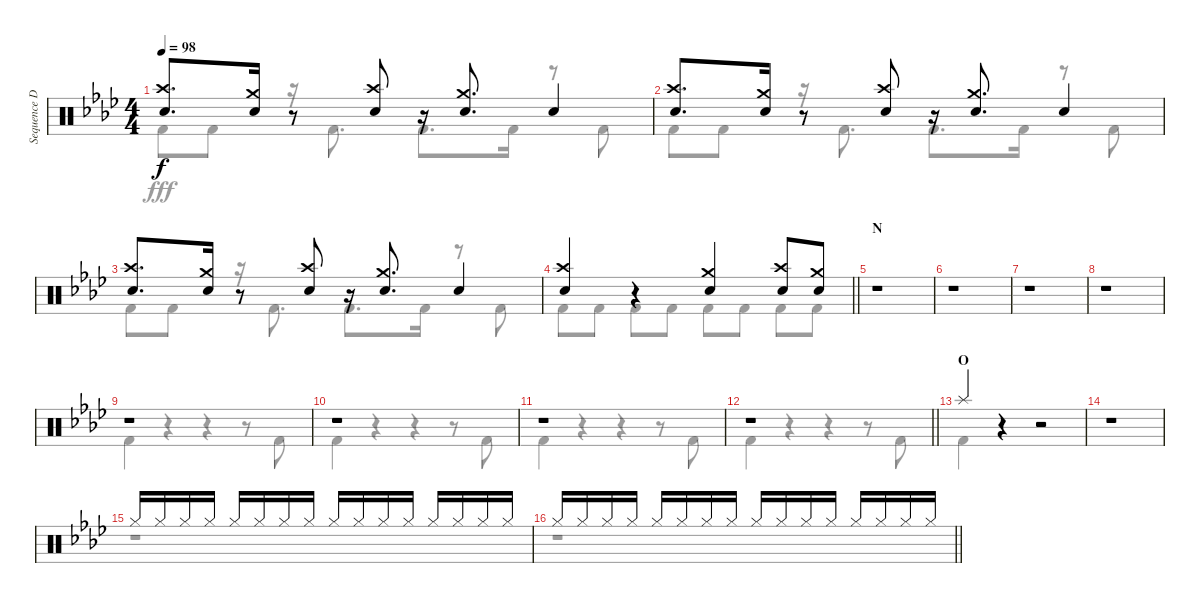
\track ("Sequence Drums I" "Sequence D") {instrument percussion}
\staff {score}
\articulation defaults
\voice
\ts (4 4)
\tempo 98
\clef neutral
\ks ab
("Crash high (hit)" "Electric Snare (hit)").8{d dy f} ("Crash medium (hit)" "Electric Snare (hit)").16 r.8 ("Crash high (hit)" "Electric Snare (hit)").8 r.16 ("Crash medium (hit)" "Electric Snare (hit)").8{d} "Electric Snare (hit)".4 |
("Crash high (hit)" "Electric Snare (hit)").8{d} ("Crash medium (hit)" "Electric Snare (hit)").16 r.8 ("Crash high (hit)" "Electric Snare (hit)").8 r.16 ("Crash medium (hit)" "Electric Snare (hit)").8{d} "Electric Snare (hit)".4 |
("Crash high (hit)" "Electric Snare (hit)").8{d} ("Crash medium (hit)" "Electric Snare (hit)").16 r.8 ("Crash high (hit)" "Electric Snare (hit)").8 r.16 ("Crash medium (hit)" "Electric Snare (hit)").8{d} "Electric Snare (hit)".4 |
\barLineRight lightlight
("Crash high (hit)" "Electric Snare (hit)").4 r.4 ("Crash medium (hit)" "Electric Snare (hit)").4 ("Crash high (hit)" "Electric Snare (hit)").8 ("Crash medium (hit)" "Electric Snare (hit)").8 |
\section ("" "N")
r.1 |
r.1 |
r.1 |
r.1 |
r.1 |
r.1 |
r.1 |
\barLineRight lightlight
r.1 |
\section ("" "O")
"Splash (hit)".4 r.4 r.2 |
r.1 |
"Hi-Hat (closed)".16 "Hi-Hat (closed)".16 "Hi-Hat (closed)".16 "Hi-Hat (closed)".16 "Hi-Hat (closed)".16 "Hi-Hat (closed)".16 "Hi-Hat (closed)".16 "Hi-Hat (closed)".16 "Hi-Hat (closed)".16 "Hi-Hat (closed)".16 "Hi-Hat (closed)".16 "Hi-Hat (closed)".16 "Hi-Hat (closed)".16 "Hi-Hat (closed)".16 "Hi-Hat (closed)".16 "Hi-Hat (closed)".16 |
\barLineRight lightlight "Hi-Hat (closed)".16 "Hi-Hat (closed)".16 "Hi-Hat (closed)".16 "Hi-Hat (closed)".16 "Hi-Hat (closed)".16 "Hi-Hat (closed)".16 "Hi-Hat (closed)".16 "Hi-Hat (closed)".16 "Hi-Hat (closed)".16 "Hi-Hat (closed)".16 "Hi-Hat (closed)".16 "Hi-Hat (closed)".16 "Hi-Hat (closed)".16 "Hi-Hat (closed)".16 "Hi-Hat (closed)".16 "Hi-Hat (closed)".16
\voice
\clef neutral
\ottava regular
\simile none
\ks ab "Kick (hit) 2".8{dy fff} "Kick (hit) 2".8
r.16 "Kick (hit) 2".8{d} "Kick (hit) 2".8{d} "Kick (hit) 2".16 r.8 "Kick (hit) 2".8 |
"Kick (hit) 2".8 "Kick (hit) 2".8 r.16 "Kick (hit) 2".8{d} "Kick (hit) 2".8{d} "Kick (hit) 2".16 r.8 "Kick (hit) 2".8 |
"Kick (hit) 2".8 "Kick (hit) 2".8 r.16 "Kick (hit) 2".8{d} "Kick (hit) 2".8{d} "Kick (hit) 2".16 r.8 "Kick (hit) 2".8 |
\barLineRight lightlight "Kick (hit) 2".8 "Kick (hit) 2".8 "Kick (hit) 2".8 "Kick (hit) 2".8 "Kick (hit) 2".8 "Kick (hit) 2".8 "Kick (hit) 2".8 "Kick (hit) 2".8
|
r.1 |
r.1 |
r.1 |
r.1 |
"Kick (hit) 2".4 r.4 r.4 r.8 "Kick (hit) 2".8 |
"Kick (hit) 2".4 r.4 r.4 r.8 "Kick (hit) 2".8 |
"Kick (hit) 2".4 r.4 r.4 r.8 "Kick (hit) 2".8 |
\barLineRight lightlight "Kick (hit) 2".4
r.4 r.4 r.8 "Kick (hit) 2".8 |
"Kick (hit) 2".4 r.4 r.2 |
r.1 |
r.1 |
\barLineRight lightlight
r.1
